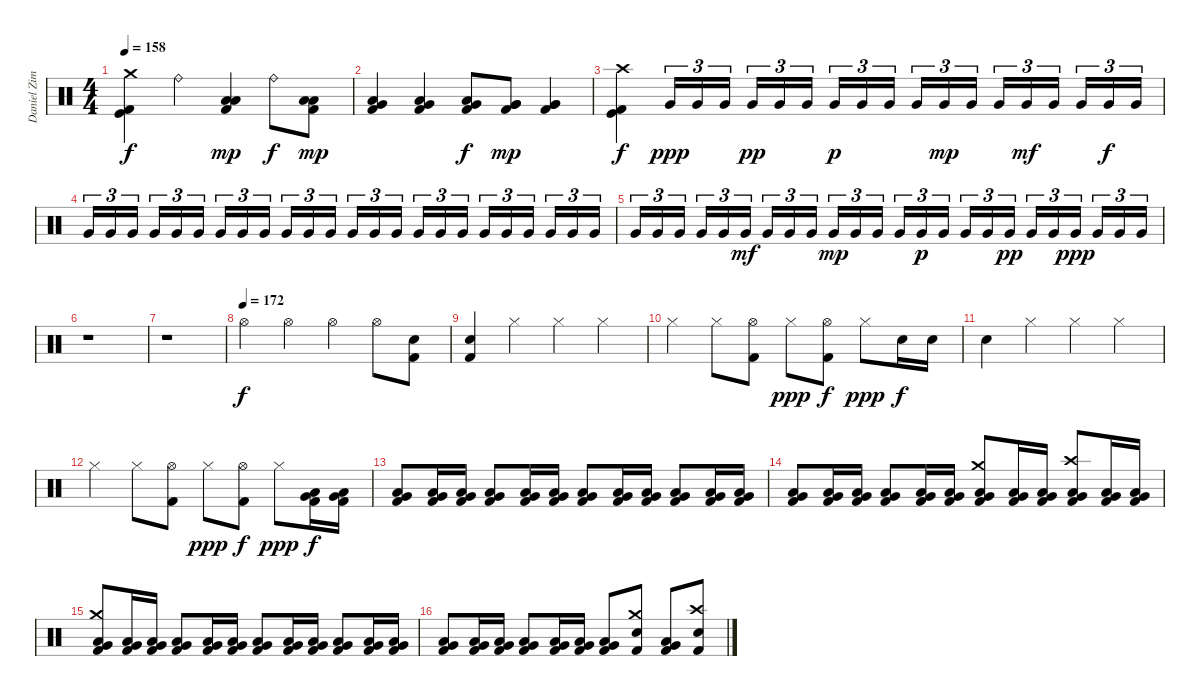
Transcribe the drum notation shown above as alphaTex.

\track ("Daniel Zimmermann - Drums" "Daniel Zim") {instrument percussion}
\staff {score}
\articulation defaults
\ts (4 4)
\tempo 158
\clef neutral
\ks c
("Kick (hit) 2" "Kick (hit)" "Crash medium (hit)").4{dy f} "Ride (bell)".4 ("Kick (hit) 2" "Low Tom (hit)" "Low Tom (hit)").4{dy mp} "Ride (bell)".8{dy f} ("Kick (hit) 2" "Low Tom (hit)" "Low Tom (hit)").8{dy mp} |
("Kick (hit) 2" "Low Tom (hit)" "Very Low Tom (hit)").4 ("Kick (hit) 2" "Low Tom (hit)" "Very Low Tom (hit)").4 ("Kick (hit) 2" "Low Tom (hit)" "Very Low Tom (hit)").8{dy f} ("Kick (hit) 2" "Very Low Tom (hit)" "Very Low Tom (hit)").8{dy mp} ("Kick (hit) 2" "Very Low Tom (hit)" "Very Low Tom (hit)").4 |
("Kick (hit) 2" "Kick (hit)" "Crash high (hit)").4{dy f} "Very Low Tom (hit)".16{tu (3 2) dy ppp} "Very Low Tom (hit)".16{tu (3 2)} "Very Low Tom (hit)".16{tu (3 2) beam splitsecondary} "Very Low Tom (hit)".16{tu (3 2) dy pp} "Very Low Tom (hit)".16{tu (3 2)} "Very Low Tom (hit)".16{tu (3 2)} "Very Low Tom (hit)".16{tu (3 2) dy p} "Very Low Tom (hit)".16{tu (3 2)} "Very Low Tom (hit)".16{tu (3 2) beam splitsecondary} "Very Low Tom (hit)".16{tu (3 2)} "Very Low Tom (hit)".16{tu (3 2) dy mp} "Very Low Tom (hit)".16{tu (3 2)} "Very Low Tom (hit)".16{tu (3 2)} "Very Low Tom (hit)".16{tu (3 2) dy mf} "Very Low Tom (hit)".16{tu (3 2) beam splitsecondary} "Very Low Tom (hit)".16{tu (3 2)} "Very Low Tom (hit)".16{tu (3 2) dy f} "Very Low Tom (hit)".16{tu (3 2)} |
"Very Low Tom (hit)".16{tu (3 2)} "Very Low Tom (hit)".16{tu (3 2)} "Very Low Tom (hit)".16{tu (3 2) beam splitsecondary} "Very Low Tom (hit)".16{tu (3 2)} "Very Low Tom (hit)".16{tu (3 2)} "Very Low Tom (hit)".16{tu (3 2)} "Very Low Tom (hit)".16{tu (3 2)} "Very Low Tom (hit)".16{tu (3 2)} "Very Low Tom (hit)".16{tu (3 2) beam splitsecondary} "Very Low Tom (hit)".16{tu (3 2)} "Very Low Tom (hit)".16{tu (3 2)} "Very Low Tom (hit)".16{tu (3 2)} "Very Low Tom (hit)".16{tu (3 2)} "Very Low Tom (hit)".16{tu (3 2)} "Very Low Tom (hit)".16{tu (3 2) beam splitsecondary} "Very Low Tom (hit)".16{tu (3 2)} "Very Low Tom (hit)".16{tu (3 2)} "Very Low Tom (hit)".16{tu (3 2)} "Very Low Tom (hit)".16{tu (3 2)} "Very Low Tom (hit)".16{tu (3 2)} "Very Low Tom (hit)".16{tu (3 2) beam splitsecondary} "Very Low Tom (hit)".16{tu (3 2)} "Very Low Tom (hit)".16{tu (3 2)} "Very Low Tom (hit)".16{tu (3 2)} |
"Very Low Tom (hit)".16{tu (3 2)} "Very Low Tom (hit)".16{tu (3 2)} "Very Low Tom (hit)".16{tu (3 2) beam splitsecondary} "Very Low Tom (hit)".16{tu (3 2)} "Very Low Tom (hit)".16{tu (3 2)} "Very Low Tom (hit)".16{tu (3 2) dy mf} "Very Low Tom (hit)".16{tu (3 2)} "Very Low Tom (hit)".16{tu (3 2)} "Very Low Tom (hit)".16{tu (3 2) beam splitsecondary} "Very Low Tom (hit)".16{tu (3 2) dy mp} "Very Low Tom (hit)".16{tu (3 2)} "Very Low Tom (hit)".16{tu (3 2)} "Very Low Tom (hit)".16{tu (3 2)} "Very Low Tom (hit)".16{tu (3 2) dy p} "Very Low Tom (hit)".16{tu (3 2) beam splitsecondary} "Very Low Tom (hit)".16{tu (3 2)} "Very Low Tom (hit)".16{tu (3 2)} "Very Low Tom (hit)".16{tu (3 2) dy pp} "Very Low Tom (hit)".16{tu (3 2)} "Very Low Tom (hit)".16{tu (3 2)} "Very Low Tom (hit)".16{tu (3 2) dy ppp beam splitsecondary} "Very Low Tom (hit)".16{tu (3 2)} "Very Low Tom (hit)".16{tu (3 2)} "Very Low Tom (hit)".16{tu (3 2)} |
r.1 |
r.1 |
\tempo (172)
"Hi-Hat (open)".4{dy f} "Hi-Hat (open)".4 "Hi-Hat (open)".4 "Hi-Hat (open)".8 ("Kick (hit) 2" "Electric Snare (hit)").8 |
("Kick (hit) 2" "Electric Snare (hit)").4 "Hi-Hat (closed)".4 "Hi-Hat (closed)".4 "Hi-Hat (closed)".4 |
"Hi-Hat (closed)".4 "Hi-Hat (closed)".8 ("Kick (hit) 2" "Hi-Hat (open)").8 "Hi-Hat (closed)".8{dy ppp} ("Kick (hit) 2" "Hi-Hat (open)").8{dy f} "Hi-Hat (closed)".8{dy ppp} "Electric Snare (hit)".16{dy f} "Electric Snare (hit)".16 |
"Electric Snare (hit)".4 "Hi-Hat (closed)".4 "Hi-Hat (closed)".4 "Hi-Hat (closed)".4 |
"Hi-Hat (closed)".4 "Hi-Hat (closed)".8 ("Kick (hit) 2" "Hi-Hat (open)").8 "Hi-Hat (closed)".8{dy ppp} ("Kick (hit) 2" "Hi-Hat (open)").8{dy f} "Hi-Hat (closed)".8{dy ppp} ("Kick (hit) 2" "Very Low Tom (hit)" "Low Floor Tom (hit)").16{dy f} ("Kick (hit) 2" "Very Low Tom (hit)" "Low Floor Tom (hit)").16 |
("Kick (hit) 2" "Very Low Tom (hit)" "Low Floor Tom (hit)").8 ("Kick (hit) 2" "Very Low Tom (hit)" "Low Floor Tom (hit)").16 ("Kick (hit) 2" "Very Low Tom (hit)" "Low Floor Tom (hit)").16 ("Kick (hit) 2" "Very Low Tom (hit)" "Low Floor Tom (hit)").8 ("Kick (hit) 2" "Very Low Tom (hit)" "Low Floor Tom (hit)").16 ("Kick (hit) 2" "Very Low Tom (hit)" "Low Floor Tom (hit)").16 ("Kick (hit) 2" "Very Low Tom (hit)" "Low Floor Tom (hit)").8 ("Kick (hit) 2" "Very Low Tom (hit)" "Low Floor Tom (hit)").16 ("Kick (hit) 2" "Very Low Tom (hit)" "Low Floor Tom (hit)").16 ("Kick (hit) 2" "Very Low Tom (hit)" "Low Floor Tom (hit)").8 ("Kick (hit) 2" "Very Low Tom (hit)" "Low Floor Tom (hit)").16 ("Kick (hit) 2" "Very Low Tom (hit)" "Low Floor Tom (hit)").16 |
("Kick (hit) 2" "Very Low Tom (hit)" "Low Floor Tom (hit)").8 ("Kick (hit) 2" "Very Low Tom (hit)" "Low Floor Tom (hit)").16 ("Kick (hit) 2" "Very Low Tom (hit)" "Low Floor Tom (hit)").16 ("Kick (hit) 2" "Very Low Tom (hit)" "Low Floor Tom (hit)").8 ("Kick (hit) 2" "Very Low Tom (hit)" "Low Floor Tom (hit)").16 ("Kick (hit) 2" "Very Low Tom (hit)" "Low Floor Tom (hit)").16 ("Kick (hit) 2" "Very Low Tom (hit)" "Low Floor Tom (hit)" "Crash medium (hit)").8 ("Kick (hit) 2" "Very Low Tom (hit)" "Low Floor Tom (hit)").16 ("Kick (hit) 2" "Very Low Tom (hit)" "Low Floor Tom (hit)").16 ("Kick (hit) 2" "Very Low Tom (hit)" "Low Floor Tom (hit)" "Crash high (hit)").8 ("Kick (hit) 2" "Very Low Tom (hit)" "Low Floor Tom (hit)").16 ("Kick (hit) 2" "Very Low Tom (hit)" "Low Floor Tom (hit)").16 |
("Kick (hit) 2" "Very Low Tom (hit)" "Low Floor Tom (hit)" "Crash medium (hit)").8 ("Kick (hit) 2" "Very Low Tom (hit)" "Low Floor Tom (hit)").16 ("Kick (hit) 2" "Very Low Tom (hit)" "Low Floor Tom (hit)").16 ("Kick (hit) 2" "Very Low Tom (hit)" "Low Floor Tom (hit)").8 ("Kick (hit) 2" "Very Low Tom (hit)" "Low Floor Tom (hit)").16 ("Kick (hit) 2" "Very Low Tom (hit)" "Low Floor Tom (hit)").16 ("Kick (hit) 2" "Very Low Tom (hit)" "Low Floor Tom (hit)").8 ("Kick (hit) 2" "Very Low Tom (hit)" "Low Floor Tom (hit)").16 ("Kick (hit) 2" "Very Low Tom (hit)" "Low Floor Tom (hit)").16 ("Kick (hit) 2" "Very Low Tom (hit)" "Low Floor Tom (hit)").8 ("Kick (hit) 2" "Very Low Tom (hit)" "Low Floor Tom (hit)").16 ("Kick (hit) 2" "Very Low Tom (hit)" "Low Floor Tom (hit)").16 |
("Kick (hit) 2" "Very Low Tom (hit)" "Low Floor Tom (hit)").8 ("Kick (hit) 2" "Very Low Tom (hit)" "Low Floor Tom (hit)").16 ("Kick (hit) 2" "Very Low Tom (hit)" "Low Floor Tom (hit)").16 ("Kick (hit) 2" "Very Low Tom (hit)" "Low Floor Tom (hit)").8 ("Kick (hit) 2" "Very Low Tom (hit)" "Low Floor Tom (hit)").16 ("Kick (hit) 2" "Very Low Tom (hit)" "Low Floor Tom (hit)").16 ("Kick (hit) 2" "Very Low Tom (hit)" "Low Floor Tom (hit)").8 ("Kick (hit) 2" "Electric Snare (hit)" "Crash medium (hit)").8 ("Kick (hit) 2" "Very Low Tom (hit)" "Low Floor Tom (hit)").8 ("Kick (hit) 2" "Electric Snare (hit)" "Crash high (hit)").8
